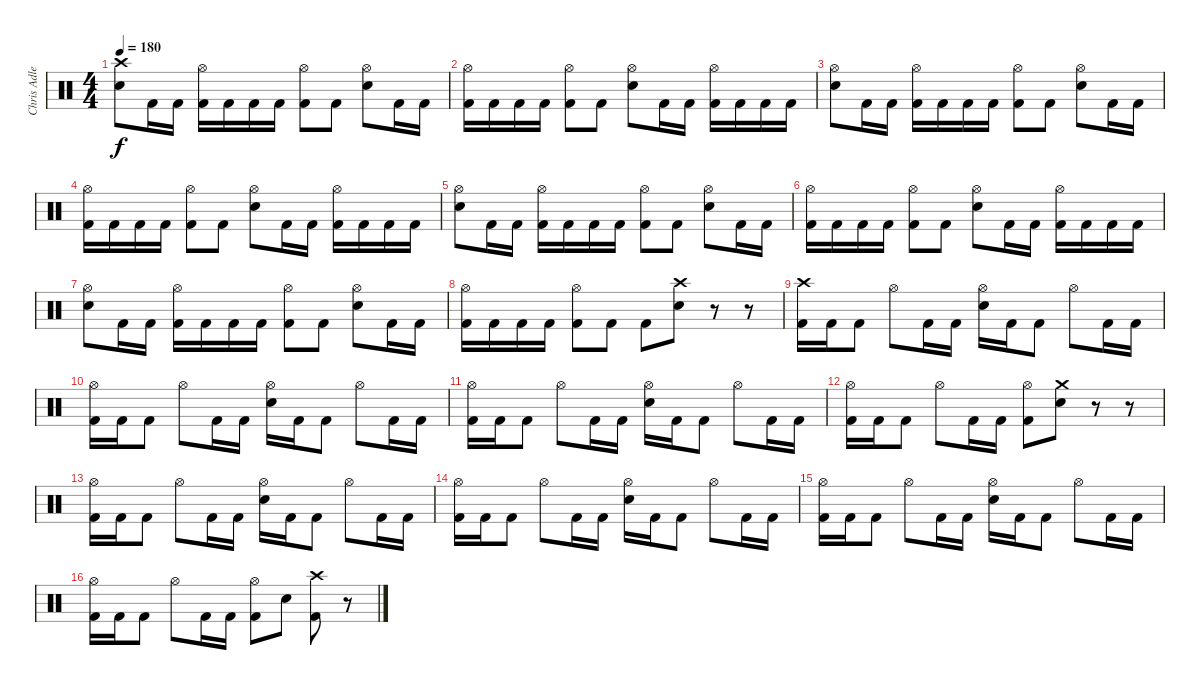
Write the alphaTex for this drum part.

\track ("Chris Adler" "Chris Adle") {instrument percussion}
\staff {score}
\articulation defaults
\ts (4 4)
\tempo 180
\clef neutral
\ks c
("Crash high (hit)" "Electric Snare (hit)").8{dy f} "Kick (hit) 2".16 "Kick (hit) 2".16 ("Hi-Hat (open)" "Kick (hit) 2").16 "Kick (hit) 2".16 "Kick (hit) 2".16 "Kick (hit) 2".16 ("Hi-Hat (open)" "Kick (hit) 2").8 "Kick (hit) 2".8 ("Hi-Hat (open)" "Electric Snare (hit)").8 "Kick (hit) 2".16 "Kick (hit) 2".16 |
("Hi-Hat (open)" "Kick (hit) 2").16 "Kick (hit) 2".16 "Kick (hit) 2".16 "Kick (hit) 2".16 ("Hi-Hat (open)" "Kick (hit) 2").8 "Kick (hit) 2".8 ("Hi-Hat (open)" "Electric Snare (hit)").8 "Kick (hit) 2".16 "Kick (hit) 2".16 ("Hi-Hat (open)" "Kick (hit) 2").16 "Kick (hit) 2".16 "Kick (hit) 2".16 "Kick (hit) 2".16 |
("Hi-Hat (open)" "Electric Snare (hit)").8 "Kick (hit) 2".16 "Kick (hit) 2".16 ("Hi-Hat (open)" "Kick (hit) 2").16 "Kick (hit) 2".16 "Kick (hit) 2".16 "Kick (hit) 2".16 ("Hi-Hat (open)" "Kick (hit) 2").8 "Kick (hit) 2".8 ("Hi-Hat (open)" "Electric Snare (hit)").8 "Kick (hit) 2".16 "Kick (hit) 2".16 |
("Hi-Hat (open)" "Kick (hit) 2").16 "Kick (hit) 2".16 "Kick (hit) 2".16 "Kick (hit) 2".16 ("Hi-Hat (open)" "Kick (hit) 2").8 "Kick (hit) 2".8 ("Hi-Hat (open)" "Electric Snare (hit)").8 "Kick (hit) 2".16 "Kick (hit) 2".16 ("Hi-Hat (open)" "Kick (hit) 2").16 "Kick (hit) 2".16 "Kick (hit) 2".16 "Kick (hit) 2".16 |
("Hi-Hat (open)" "Electric Snare (hit)").8 "Kick (hit) 2".16 "Kick (hit) 2".16 ("Hi-Hat (open)" "Kick (hit) 2").16 "Kick (hit) 2".16 "Kick (hit) 2".16 "Kick (hit) 2".16 ("Hi-Hat (open)" "Kick (hit) 2").8 "Kick (hit) 2".8 ("Hi-Hat (open)" "Electric Snare (hit)").8 "Kick (hit) 2".16 "Kick (hit) 2".16 |
("Hi-Hat (open)" "Kick (hit) 2").16 "Kick (hit) 2".16 "Kick (hit) 2".16 "Kick (hit) 2".16 ("Hi-Hat (open)" "Kick (hit) 2").8 "Kick (hit) 2".8 ("Hi-Hat (open)" "Electric Snare (hit)").8 "Kick (hit) 2".16 "Kick (hit) 2".16 ("Hi-Hat (open)" "Kick (hit) 2").16 "Kick (hit) 2".16 "Kick (hit) 2".16 "Kick (hit) 2".16 |
("Hi-Hat (open)" "Electric Snare (hit)").8 "Kick (hit) 2".16 "Kick (hit) 2".16 ("Hi-Hat (open)" "Kick (hit) 2").16 "Kick (hit) 2".16 "Kick (hit) 2".16 "Kick (hit) 2".16 ("Hi-Hat (open)" "Kick (hit) 2").8 "Kick (hit) 2".8 ("Hi-Hat (open)" "Electric Snare (hit)").8 "Kick (hit) 2".16 "Kick (hit) 2".16 |
("Hi-Hat (open)" "Kick (hit) 2").16 "Kick (hit) 2".16 "Kick (hit) 2".16 "Kick (hit) 2".16 ("Hi-Hat (open)" "Kick (hit) 2").8 "Kick (hit) 2".8 "Kick (hit) 2".8 ("Crash high (hit)" "Electric Snare (hit)").8 r.8 r.8 |
("Crash high (hit)" "Kick (hit) 2").16 "Kick (hit) 2".16 "Kick (hit) 2".8 "Hi-Hat (open)".8 "Kick (hit) 2".16 "Kick (hit) 2".16 ("Hi-Hat (open)" "Electric Snare (hit)").16 "Kick (hit) 2".16 "Kick (hit) 2".8 "Hi-Hat (open)".8 "Kick (hit) 2".16 "Kick (hit) 2".16 |
("Hi-Hat (open)" "Kick (hit) 2").16 "Kick (hit) 2".16 "Kick (hit) 2".8 "Hi-Hat (open)".8 "Kick (hit) 2".16 "Kick (hit) 2".16 ("Hi-Hat (open)" "Electric Snare (hit)").16 "Kick (hit) 2".16 "Kick (hit) 2".8 "Hi-Hat (open)".8 "Kick (hit) 2".16 "Kick (hit) 2".16 |
("Hi-Hat (open)" "Kick (hit) 2").16 "Kick (hit) 2".16 "Kick (hit) 2".8 "Hi-Hat (open)".8 "Kick (hit) 2".16 "Kick (hit) 2".16 ("Hi-Hat (open)" "Electric Snare (hit)").16 "Kick (hit) 2".16 "Kick (hit) 2".8 "Hi-Hat (open)".8 "Kick (hit) 2".16 "Kick (hit) 2".16 |
("Hi-Hat (open)" "Kick (hit) 2").16 "Kick (hit) 2".16 "Kick (hit) 2".8 "Hi-Hat (open)".8 "Kick (hit) 2".16 "Kick (hit) 2".16 ("Hi-Hat (open)" "Kick (hit) 2").8 ("Crash medium (hit)" "Electric Snare (hit)").8 r.8 r.8 |
("Hi-Hat (open)" "Kick (hit) 2").16 "Kick (hit) 2".16 "Kick (hit) 2".8 "Hi-Hat (open)".8 "Kick (hit) 2".16 "Kick (hit) 2".16 ("Hi-Hat (open)" "Electric Snare (hit)").16 "Kick (hit) 2".16 "Kick (hit) 2".8 "Hi-Hat (open)".8 "Kick (hit) 2".16 "Kick (hit) 2".16 |
("Hi-Hat (open)" "Kick (hit) 2").16 "Kick (hit) 2".16 "Kick (hit) 2".8 "Hi-Hat (open)".8 "Kick (hit) 2".16 "Kick (hit) 2".16 ("Hi-Hat (open)" "Electric Snare (hit)").16 "Kick (hit) 2".16 "Kick (hit) 2".8 "Hi-Hat (open)".8 "Kick (hit) 2".16 "Kick (hit) 2".16 |
("Hi-Hat (open)" "Kick (hit) 2").16 "Kick (hit) 2".16 "Kick (hit) 2".8 "Hi-Hat (open)".8 "Kick (hit) 2".16 "Kick (hit) 2".16 ("Hi-Hat (open)" "Electric Snare (hit)").16 "Kick (hit) 2".16 "Kick (hit) 2".8 "Hi-Hat (open)".8 "Kick (hit) 2".16 "Kick (hit) 2".16 |
("Hi-Hat (open)" "Kick (hit) 2").16 "Kick (hit) 2".16 "Kick (hit) 2".8 "Hi-Hat (open)".8 "Kick (hit) 2".16 "Kick (hit) 2".16 ("Hi-Hat (open)" "Kick (hit) 2").8 "Electric Snare (hit)".8 ("Crash high (hit)" "Kick (hit) 2").8 r.8
